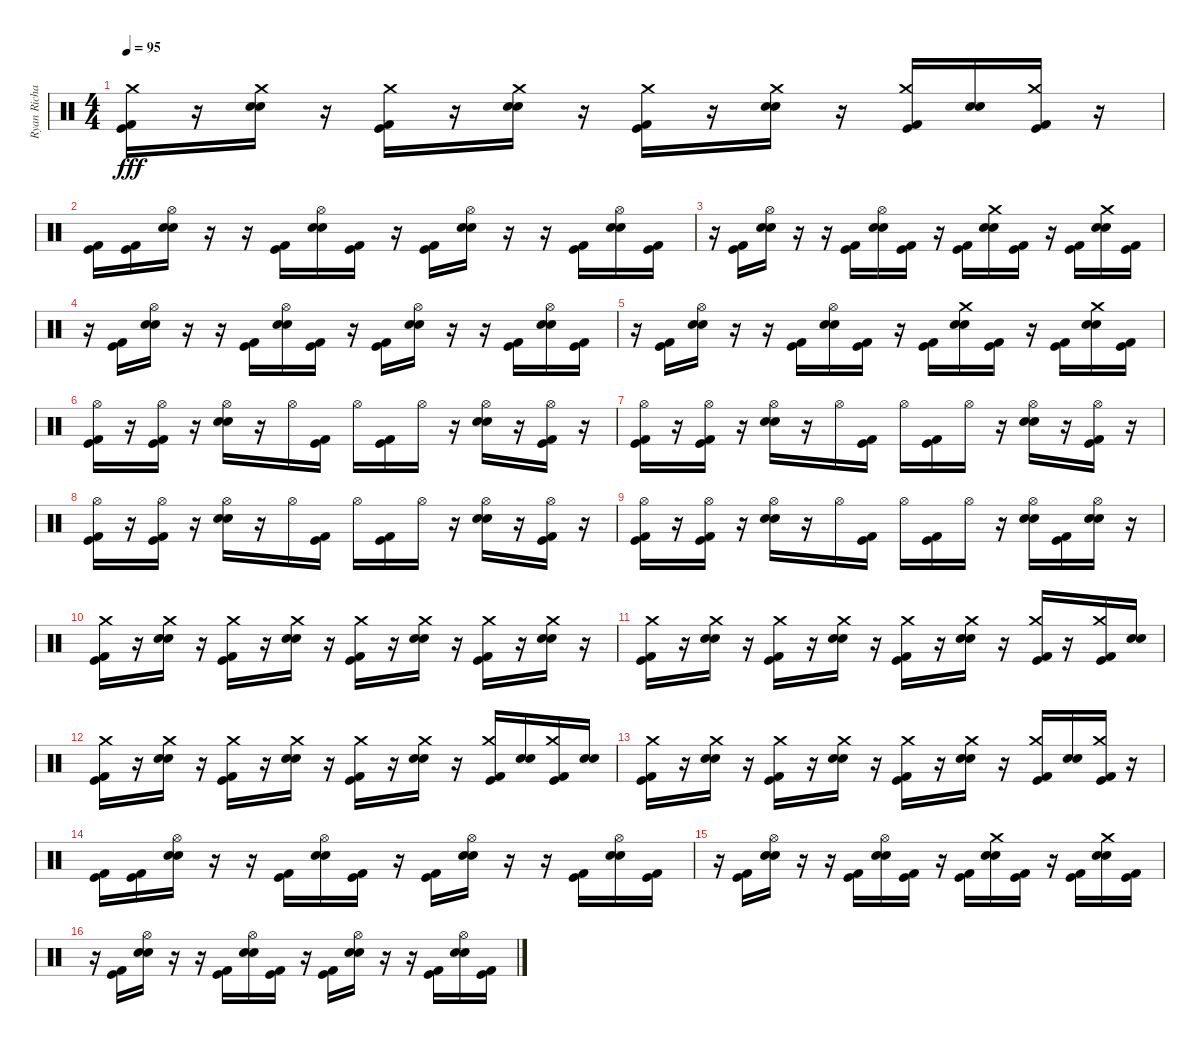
\track ("Ryan Richards" "Ryan Richa") {instrument percussion}
\staff {score}
\articulation defaults
\ts (4 4)
\tempo 95
\clef neutral
\ks c
("Kick (hit)" "Crash medium (hit)" "Kick (hit) 2").16{dy fff} r.16 ("Crash medium (hit)" "Electric Snare (hit)" "Snare (hit) 2").16 r.16 ("Kick (hit)" "Crash medium (hit)" "Kick (hit) 2").16 r.16 ("Crash medium (hit)" "Electric Snare (hit)" "Snare (hit) 2").16 r.16 ("Kick (hit)" "Crash medium (hit)" "Kick (hit) 2").16 r.16 ("Crash medium (hit)" "Electric Snare (hit)" "Snare (hit) 2").16 r.16 ("Kick (hit)" "Crash medium (hit)" "Kick (hit) 2").16 ("Electric Snare (hit)" "Snare (hit) 2").16 ("Kick (hit)" "Crash medium (hit)" "Kick (hit) 2").16 r.16 |
("Kick (hit)" "Kick (hit) 2").16 ("Kick (hit)" "Kick (hit) 2").16 ("Hi-Hat (open)" "Electric Snare (hit)" "Snare (hit) 2").16 r.16 r.16 ("Kick (hit)" "Kick (hit) 2").16 ("Hi-Hat (open)" "Electric Snare (hit)" "Snare (hit) 2").16 ("Kick (hit)" "Kick (hit) 2").16 r.16 ("Kick (hit)" "Kick (hit) 2").16 ("Hi-Hat (open)" "Electric Snare (hit)" "Snare (hit) 2").16 r.16 r.16 ("Kick (hit)" "Kick (hit) 2").16 ("Hi-Hat (open)" "Electric Snare (hit)" "Snare (hit) 2").16 ("Kick (hit)" "Kick (hit) 2").16 |
r.16 ("Kick (hit)" "Kick (hit) 2").16 ("Hi-Hat (open)" "Electric Snare (hit)" "Snare (hit) 2").16 r.16 r.16 ("Kick (hit)" "Kick (hit) 2").16 ("Hi-Hat (open)" "Electric Snare (hit)" "Snare (hit) 2").16 ("Kick (hit)" "Kick (hit) 2").16 r.16 ("Kick (hit)" "Kick (hit) 2").16 ("Crash medium (hit)" "Electric Snare (hit)" "Snare (hit) 2").16 ("Kick (hit)" "Kick (hit) 2").16 r.16 ("Kick (hit)" "Kick (hit) 2").16 ("Crash medium (hit)" "Electric Snare (hit)" "Snare (hit) 2").16 ("Kick (hit)" "Kick (hit) 2").16 |
r.16 ("Kick (hit)" "Kick (hit) 2").16 ("Hi-Hat (open)" "Electric Snare (hit)" "Snare (hit) 2").16 r.16 r.16 ("Kick (hit)" "Kick (hit) 2").16 ("Hi-Hat (open)" "Electric Snare (hit)" "Snare (hit) 2").16 ("Kick (hit)" "Kick (hit) 2").16 r.16 ("Kick (hit)" "Kick (hit) 2").16 ("Hi-Hat (open)" "Electric Snare (hit)" "Snare (hit) 2").16 r.16 r.16 ("Kick (hit)" "Kick (hit) 2").16 ("Hi-Hat (open)" "Electric Snare (hit)" "Snare (hit) 2").16 ("Kick (hit)" "Kick (hit) 2").16 |
r.16 ("Kick (hit)" "Kick (hit) 2").16 ("Hi-Hat (open)" "Electric Snare (hit)" "Snare (hit) 2").16 r.16 r.16 ("Kick (hit)" "Kick (hit) 2").16 ("Hi-Hat (open)" "Electric Snare (hit)" "Snare (hit) 2").16 ("Kick (hit)" "Kick (hit) 2").16 r.16 ("Kick (hit)" "Kick (hit) 2").16 ("Crash medium (hit)" "Electric Snare (hit)" "Snare (hit) 2").16 ("Kick (hit)" "Kick (hit) 2").16 r.16 ("Kick (hit)" "Kick (hit) 2").16 ("Crash medium (hit)" "Electric Snare (hit)" "Snare (hit) 2").16 ("Kick (hit)" "Kick (hit) 2").16 |
("Kick (hit)" "Hi-Hat (open)" "Kick (hit) 2").16 r.16 ("Kick (hit)" "Hi-Hat (open)" "Kick (hit) 2").16 r.16 ("Hi-Hat (open)" "Electric Snare (hit)" "Snare (hit) 2").16 r.16 "Hi-Hat (open)".16 ("Kick (hit)" "Kick (hit) 2").16 "Hi-Hat (open)".16 ("Kick (hit)" "Kick (hit) 2").16 "Hi-Hat (open)".16 r.16 ("Hi-Hat (open)" "Electric Snare (hit)" "Snare (hit) 2").16 r.16 ("Kick (hit)" "Hi-Hat (open)" "Kick (hit) 2").16 r.16 |
("Kick (hit)" "Hi-Hat (open)" "Kick (hit) 2").16 r.16 ("Kick (hit)" "Hi-Hat (open)" "Kick (hit) 2").16 r.16 ("Hi-Hat (open)" "Electric Snare (hit)" "Snare (hit) 2").16 r.16 "Hi-Hat (open)".16 ("Kick (hit)" "Kick (hit) 2").16 "Hi-Hat (open)".16 ("Kick (hit)" "Kick (hit) 2").16 "Hi-Hat (open)".16 r.16 ("Hi-Hat (open)" "Electric Snare (hit)" "Snare (hit) 2").16 r.16 ("Kick (hit)" "Hi-Hat (open)" "Kick (hit) 2").16 r.16 |
("Kick (hit)" "Hi-Hat (open)" "Kick (hit) 2").16 r.16 ("Kick (hit)" "Hi-Hat (open)" "Kick (hit) 2").16 r.16 ("Hi-Hat (open)" "Electric Snare (hit)" "Snare (hit) 2").16 r.16 "Hi-Hat (open)".16 ("Kick (hit)" "Kick (hit) 2").16 "Hi-Hat (open)".16 ("Kick (hit)" "Kick (hit) 2").16 "Hi-Hat (open)".16 r.16 ("Hi-Hat (open)" "Electric Snare (hit)" "Snare (hit) 2").16 r.16 ("Kick (hit)" "Hi-Hat (open)" "Kick (hit) 2").16 r.16 |
("Kick (hit)" "Hi-Hat (open)" "Kick (hit) 2").16 r.16 ("Kick (hit)" "Hi-Hat (open)" "Kick (hit) 2").16 r.16 ("Hi-Hat (open)" "Electric Snare (hit)" "Snare (hit) 2").16 r.16 "Hi-Hat (open)".16 ("Kick (hit)" "Kick (hit) 2").16 "Hi-Hat (open)".16 ("Kick (hit)" "Kick (hit) 2").16 "Hi-Hat (open)".16 r.16 ("Hi-Hat (open)" "Electric Snare (hit)" "Snare (hit) 2").16 ("Kick (hit)" "Kick (hit) 2").16 ("Hi-Hat (open)" "Electric Snare (hit)" "Snare (hit) 2").16 r.16 |
("Kick (hit)" "Crash medium (hit)" "Kick (hit) 2").16 r.16 ("Crash medium (hit)" "Electric Snare (hit)" "Snare (hit) 2").16 r.16 ("Kick (hit)" "Crash medium (hit)" "Kick (hit) 2").16 r.16 ("Crash medium (hit)" "Electric Snare (hit)" "Snare (hit) 2").16 r.16 ("Kick (hit)" "Crash medium (hit)" "Kick (hit) 2").16 r.16 ("Crash medium (hit)" "Electric Snare (hit)" "Snare (hit) 2").16 r.16 ("Kick (hit)" "Crash medium (hit)" "Kick (hit) 2").16 r.16 ("Crash medium (hit)" "Electric Snare (hit)" "Snare (hit) 2").16 r.16 |
("Kick (hit)" "Crash medium (hit)" "Kick (hit) 2").16 r.16 ("Crash medium (hit)" "Electric Snare (hit)" "Snare (hit) 2").16 r.16 ("Kick (hit)" "Crash medium (hit)" "Kick (hit) 2").16 r.16 ("Crash medium (hit)" "Electric Snare (hit)" "Snare (hit) 2").16 r.16 ("Kick (hit)" "Crash medium (hit)" "Kick (hit) 2").16 r.16 ("Crash medium (hit)" "Electric Snare (hit)" "Snare (hit) 2").16 r.16 ("Kick (hit)" "Crash medium (hit)" "Kick (hit) 2").16 r.16 ("Kick (hit)" "Crash medium (hit)" "Kick (hit) 2").16 ("Electric Snare (hit)" "Snare (hit) 2").16 |
("Kick (hit)" "Crash medium (hit)" "Kick (hit) 2").16 r.16 ("Crash medium (hit)" "Electric Snare (hit)" "Snare (hit) 2").16 r.16 ("Kick (hit)" "Crash medium (hit)" "Kick (hit) 2").16 r.16 ("Crash medium (hit)" "Electric Snare (hit)" "Snare (hit) 2").16 r.16 ("Kick (hit)" "Crash medium (hit)" "Kick (hit) 2").16 r.16 ("Crash medium (hit)" "Electric Snare (hit)" "Snare (hit) 2").16 r.16 ("Kick (hit)" "Crash medium (hit)" "Kick (hit) 2").16 ("Electric Snare (hit)" "Snare (hit) 2").16 ("Kick (hit)" "Crash medium (hit)" "Kick (hit) 2").16 ("Electric Snare (hit)" "Snare (hit) 2").16 |
("Kick (hit)" "Crash medium (hit)" "Kick (hit) 2").16 r.16 ("Crash medium (hit)" "Electric Snare (hit)" "Snare (hit) 2").16 r.16 ("Kick (hit)" "Crash medium (hit)" "Kick (hit) 2").16 r.16 ("Crash medium (hit)" "Electric Snare (hit)" "Snare (hit) 2").16 r.16 ("Kick (hit)" "Crash medium (hit)" "Kick (hit) 2").16 r.16 ("Crash medium (hit)" "Electric Snare (hit)" "Snare (hit) 2").16 r.16 ("Kick (hit)" "Crash medium (hit)" "Kick (hit) 2").16 ("Electric Snare (hit)" "Snare (hit) 2").16 ("Kick (hit)" "Crash medium (hit)" "Kick (hit) 2").16 r.16 |
("Kick (hit)" "Kick (hit) 2").16 ("Kick (hit)" "Kick (hit) 2").16 ("Hi-Hat (open)" "Electric Snare (hit)" "Snare (hit) 2").16 r.16 r.16 ("Kick (hit)" "Kick (hit) 2").16 ("Hi-Hat (open)" "Electric Snare (hit)" "Snare (hit) 2").16 ("Kick (hit)" "Kick (hit) 2").16 r.16 ("Kick (hit)" "Kick (hit) 2").16 ("Hi-Hat (open)" "Electric Snare (hit)" "Snare (hit) 2").16 r.16 r.16 ("Kick (hit)" "Kick (hit) 2").16 ("Hi-Hat (open)" "Electric Snare (hit)" "Snare (hit) 2").16 ("Kick (hit)" "Kick (hit) 2").16 |
r.16 ("Kick (hit)" "Kick (hit) 2").16 ("Hi-Hat (open)" "Electric Snare (hit)" "Snare (hit) 2").16 r.16 r.16 ("Kick (hit)" "Kick (hit) 2").16 ("Hi-Hat (open)" "Electric Snare (hit)" "Snare (hit) 2").16 ("Kick (hit)" "Kick (hit) 2").16 r.16 ("Kick (hit)" "Kick (hit) 2").16 ("Crash medium (hit)" "Electric Snare (hit)" "Snare (hit) 2").16 ("Kick (hit)" "Kick (hit) 2").16 r.16 ("Kick (hit)" "Kick (hit) 2").16 ("Crash medium (hit)" "Electric Snare (hit)" "Snare (hit) 2").16 ("Kick (hit)" "Kick (hit) 2").16 |
r.16 ("Kick (hit)" "Kick (hit) 2").16 ("Hi-Hat (open)" "Electric Snare (hit)" "Snare (hit) 2").16 r.16 r.16 ("Kick (hit)" "Kick (hit) 2").16 ("Hi-Hat (open)" "Electric Snare (hit)" "Snare (hit) 2").16 ("Kick (hit)" "Kick (hit) 2").16 r.16 ("Kick (hit)" "Kick (hit) 2").16 ("Hi-Hat (open)" "Electric Snare (hit)" "Snare (hit) 2").16 r.16 r.16 ("Kick (hit)" "Kick (hit) 2").16 ("Hi-Hat (open)" "Electric Snare (hit)" "Snare (hit) 2").16 ("Kick (hit)" "Kick (hit) 2").16
